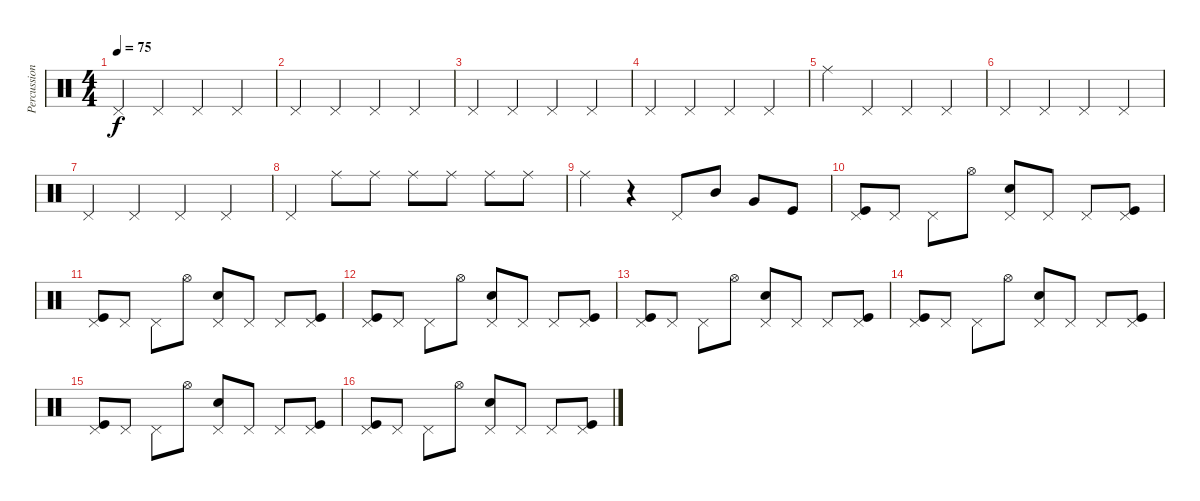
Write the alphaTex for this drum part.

\track ("Percussion" "Percussion") {instrument percussion}
\staff {score}
\articulation defaults
\ts (4 4)
\tempo 75
\clef neutral
\ks c "Pedal Hi-Hat (hit)".4{dy f} "Pedal Hi-Hat (hit)".4 "Pedal Hi-Hat (hit)".4 "Pedal Hi-Hat (hit)".4
|
"Pedal Hi-Hat (hit)".4 "Pedal Hi-Hat (hit)".4 "Pedal Hi-Hat (hit)".4 "Pedal Hi-Hat (hit)".4 |
"Pedal Hi-Hat (hit)".4 "Pedal Hi-Hat (hit)".4 "Pedal Hi-Hat (hit)".4 "Pedal Hi-Hat (hit)".4 |
"Pedal Hi-Hat (hit)".4 "Pedal Hi-Hat (hit)".4 "Pedal Hi-Hat (hit)".4 "Pedal Hi-Hat (hit)".4 |
"Ride (middle)".4 "Pedal Hi-Hat (hit)".4 "Pedal Hi-Hat (hit)".4 "Pedal Hi-Hat (hit)".4 |
"Pedal Hi-Hat (hit)".4 "Pedal Hi-Hat (hit)".4 "Pedal Hi-Hat (hit)".4 "Pedal Hi-Hat (hit)".4 |
"Pedal Hi-Hat (hit)".4 "Pedal Hi-Hat (hit)".4 "Pedal Hi-Hat (hit)".4 "Pedal Hi-Hat (hit)".4 |
"Pedal Hi-Hat (hit)".4 "Ride (middle)".8 "Ride (middle)".8 "Ride (middle)".8 "Ride (middle)".8 "Ride (middle)".8 "Ride (middle)".8 |
"Ride (middle)".4 r.4 "Pedal Hi-Hat (hit)".8 "Mid Tom (hit)".8 "Very Low Tom (hit)".8 "Kick (hit)".8 |
("Pedal Hi-Hat (hit)" "Kick (hit)").8 "Pedal Hi-Hat (hit)".8 "Pedal Hi-Hat (hit)".8 "Hi-Hat (open)".8 ("Snare (hit) 2" "Pedal Hi-Hat (hit)").8 "Pedal Hi-Hat (hit)".8 "Pedal Hi-Hat (hit)".8 ("Kick (hit)" "Pedal Hi-Hat (hit)").8 |
("Pedal Hi-Hat (hit)" "Kick (hit)").8 "Pedal Hi-Hat (hit)".8 "Pedal Hi-Hat (hit)".8 "Hi-Hat (open)".8 ("Snare (hit) 2" "Pedal Hi-Hat (hit)").8 "Pedal Hi-Hat (hit)".8 "Pedal Hi-Hat (hit)".8 ("Kick (hit)" "Pedal Hi-Hat (hit)").8 |
("Pedal Hi-Hat (hit)" "Kick (hit)").8 "Pedal Hi-Hat (hit)".8 "Pedal Hi-Hat (hit)".8 "Hi-Hat (open)".8 ("Snare (hit) 2" "Pedal Hi-Hat (hit)").8 "Pedal Hi-Hat (hit)".8 "Pedal Hi-Hat (hit)".8 ("Kick (hit)" "Pedal Hi-Hat (hit)").8 |
("Pedal Hi-Hat (hit)" "Kick (hit)").8 "Pedal Hi-Hat (hit)".8 "Pedal Hi-Hat (hit)".8 "Hi-Hat (open)".8 ("Snare (hit) 2" "Pedal Hi-Hat (hit)").8 "Pedal Hi-Hat (hit)".8 "Pedal Hi-Hat (hit)".8 ("Kick (hit)" "Pedal Hi-Hat (hit)").8 |
("Pedal Hi-Hat (hit)" "Kick (hit)").8 "Pedal Hi-Hat (hit)".8 "Pedal Hi-Hat (hit)".8 "Hi-Hat (open)".8 ("Snare (hit) 2" "Pedal Hi-Hat (hit)").8 "Pedal Hi-Hat (hit)".8 "Pedal Hi-Hat (hit)".8 ("Kick (hit)" "Pedal Hi-Hat (hit)").8 |
("Pedal Hi-Hat (hit)" "Kick (hit)").8 "Pedal Hi-Hat (hit)".8 "Pedal Hi-Hat (hit)".8 "Hi-Hat (open)".8 ("Snare (hit) 2" "Pedal Hi-Hat (hit)").8 "Pedal Hi-Hat (hit)".8 "Pedal Hi-Hat (hit)".8 ("Kick (hit)" "Pedal Hi-Hat (hit)").8 |
("Pedal Hi-Hat (hit)" "Kick (hit)").8 "Pedal Hi-Hat (hit)".8 "Pedal Hi-Hat (hit)".8 "Hi-Hat (open)".8 ("Snare (hit) 2" "Pedal Hi-Hat (hit)").8 "Pedal Hi-Hat (hit)".8 "Pedal Hi-Hat (hit)".8 ("Kick (hit)" "Pedal Hi-Hat (hit)").8
